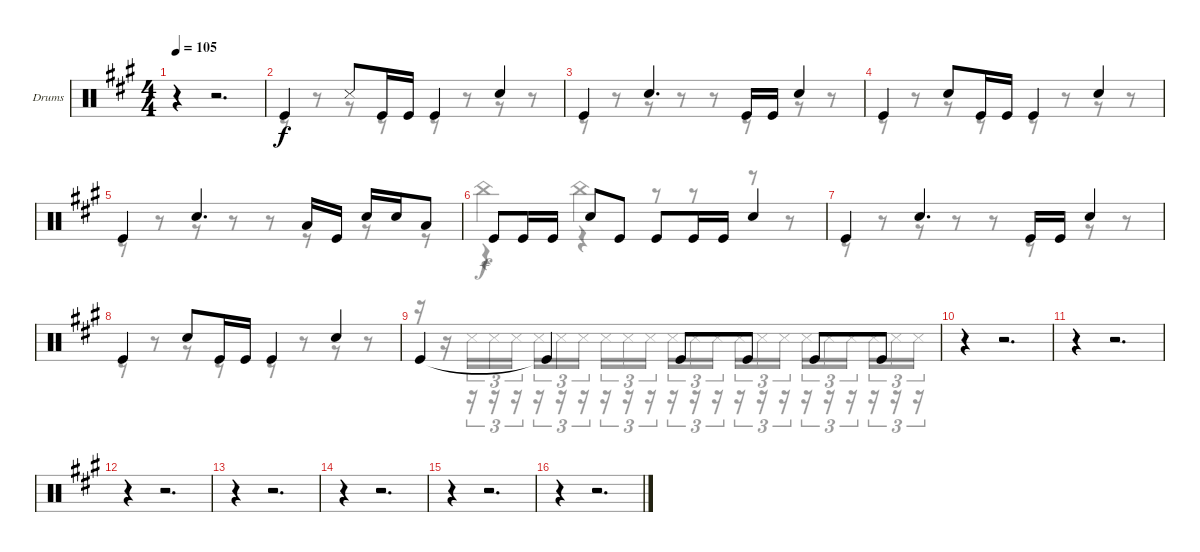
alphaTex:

\bracketExtendMode groupsimilarinstruments
\firstSystemTrackNameOrientation horizontal
\otherSystemsTrackNameOrientation horizontal
\track ("Drumkit" "Drums") {instrument percussion}
\staff {score}
\articulation defaults
\voice
\ts (4 4)
\tempo 105
\clef neutral
\ks a
r.4{dy f} r.2{d} |
"Kick (hit)".4 "Snare (side stick) 3".8 "Kick (hit)".16 "Kick (hit)".16 "Kick (hit)".4 "Snare (hit) 2".4 |
"Kick (hit)".4 "Snare (hit) 2".4{d} "Kick (hit)".16 "Kick (hit)".16 "Snare (hit) 2".4 |
"Kick (hit)".4 "Snare (hit) 2".8 "Kick (hit)".16 "Kick (hit)".16 "Kick (hit)".4 "Snare (hit) 2".4 |
"Kick (hit)".4 "Snare (hit) 2".4{d} "Low Tom (hit)".16 "Kick (hit)".16 "Snare (hit) 2".16 "Snare (hit) 2".16 "Low Tom (hit)".8 |
"Kick (hit)".8 "Kick (hit)".16 "Kick (hit)".16 "Snare (hit) 2".8 "Kick (hit)".8 "Kick (hit)".8 "Kick (hit)".16 "Kick (hit)".16 "Snare (hit) 2".4 |
"Kick (hit)".4 "Snare (hit) 2".4{d} "Kick (hit)".16 "Kick (hit)".16 "Snare (hit) 2".4 |
"Kick (hit)".4 "Snare (hit) 2".8 "Kick (hit)".16 "Kick (hit)".16 "Kick (hit)".4 "Snare (hit) 2".4 |
"Kick (hit)".4 "Kick (hit)"{t}.4 "Kick (hit)".8 "Kick (hit)".8 "Kick (hit)".8 "Kick (hit)".8 |
r.4 r.2{d} |
r.4 r.2{d} |
r.4 r.2{d} |
r.4 r.2{d} |
r.4 r.2{d} |
r.4 r.2{d} |
r.4 r.2{d}
\voice
\clef neutral
\ottava regular
\simile none
\ks a
|
|
|
|
|
"China (hit)".4 "China (hit)".4 r.8 r.8 r.8 r.8 |
|
|
r.16 r.16 "Snare (side stick) 3".16{tu (3 2)} "Snare (side stick) 3".16{tu (3 2)} "Snare (side stick) 3".16{tu (3 2)} "Snare (side stick) 3".16{tu (3 2)} "Snare (side stick) 3".16{tu (3 2)} "Snare (side stick) 3".16{tu (3 2)} "Snare (side stick) 3".16{tu (3 2)} "Snare (side stick) 3".16{tu (3 2)} "Snare (side stick) 3".16{tu (3 2)} "Snare (side stick) 3".16{tu (3 2)} "Snare (side stick) 3".16{tu (3 2)} "Snare (side stick) 3".16{tu (3 2)} "Snare (side stick) 3".16{tu (3 2)} "Snare (side stick) 3".16{tu (3 2)} "Snare (side stick) 3".16{tu (3 2)} "Snare (side stick) 3".16{tu (3 2)} "Snare (side stick) 3".16{tu (3 2)} "Snare (side stick) 3".16{tu (3 2)} "Snare (side stick) 3".16{tu (3 2)} "Snare (side stick) 3".16{tu (3 2)} "Snare (side stick) 3".16{tu (3 2)} |
|
|
|
|
|
|
\voice
\clef neutral
\ottava regular
\simile none
\ks a
|
r.8{dy mf} r.8{dy f} r.8 r.8 r.8 r.8 r.8 r.8 |
r.8 r.8 r.8 r.8 r.8 r.8 r.8 r.8 |
r.8 r.8 r.8 r.8 r.8 r.8 r.8 r.8 |
r.8 r.8 r.8 r.8 r.8 r.8 r.8 r.8 |
r.4 r.4 r.8 r.8 r.8 r.8 |
r.8 r.8 r.8 r.8 r.8 r.8 r.8 r.8 |
r.8 r.8 r.8 r.8 r.8 r.8 r.8 r.8 |
r.16{dy mf} r.16 r.16{tu (3 2) dy f} r.16{tu (3 2)} r.16{tu (3 2)} r.16{tu (3 2)} r.16{tu (3 2)} r.16{tu (3 2)} r.16{tu (3 2)} r.16{tu (3 2)} r.16{tu (3 2)} r.16{tu (3 2)} r.16{tu (3 2)} r.16{tu (3 2)} r.16{tu (3 2)} r.16{tu (3 2)} r.16{tu (3 2)} r.16{tu (3 2)} r.16{tu (3 2)} r.16{tu (3 2)} r.16{tu (3 2)} r.16{tu (3 2)} r.16{tu (3 2)} |
|
|
|
|
|
|
